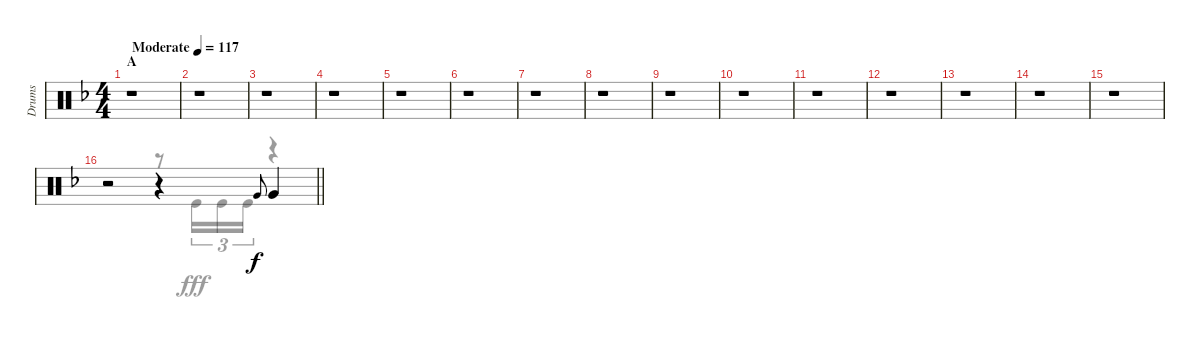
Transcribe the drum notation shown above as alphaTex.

\track ("Drums" "Drums") {instrument percussion}
\staff {score}
\articulation defaults
\voice
\ts (4 4)
\section ("" "A")
\tempo (117 "Moderate")
\clef neutral
\ks f
r.1{dy f} |
r.1 |
r.1 |
r.1 |
r.1 |
r.1 |
r.1 |
r.1 |
r.1 |
r.1 |
r.1 |
r.1 |
r.1 |
r.1 |
r.1 |
\barLineRight lightlight
r.2 r.4 "Very Low Tom (hit)".8{gr onbeat} "Very Low Tom (hit)".4
\voice
\clef neutral
\ottava regular
\simile none
\ks f
r.1{dy fff} |
r.1 |
r.1 |
r.1 |
r.1 |
r.1 |
r.1 |
r.1 |
r.1 |
r.1 |
r.1 |
r.1 |
r.1 |
r.1 |
r.1 |
\barLineRight lightlight
r.2 r.8 "Kick (hit)".16{tu (3 2)} "Kick (hit)".16{tu (3 2)} "Kick (hit)".16{tu (3 2)} r.4
